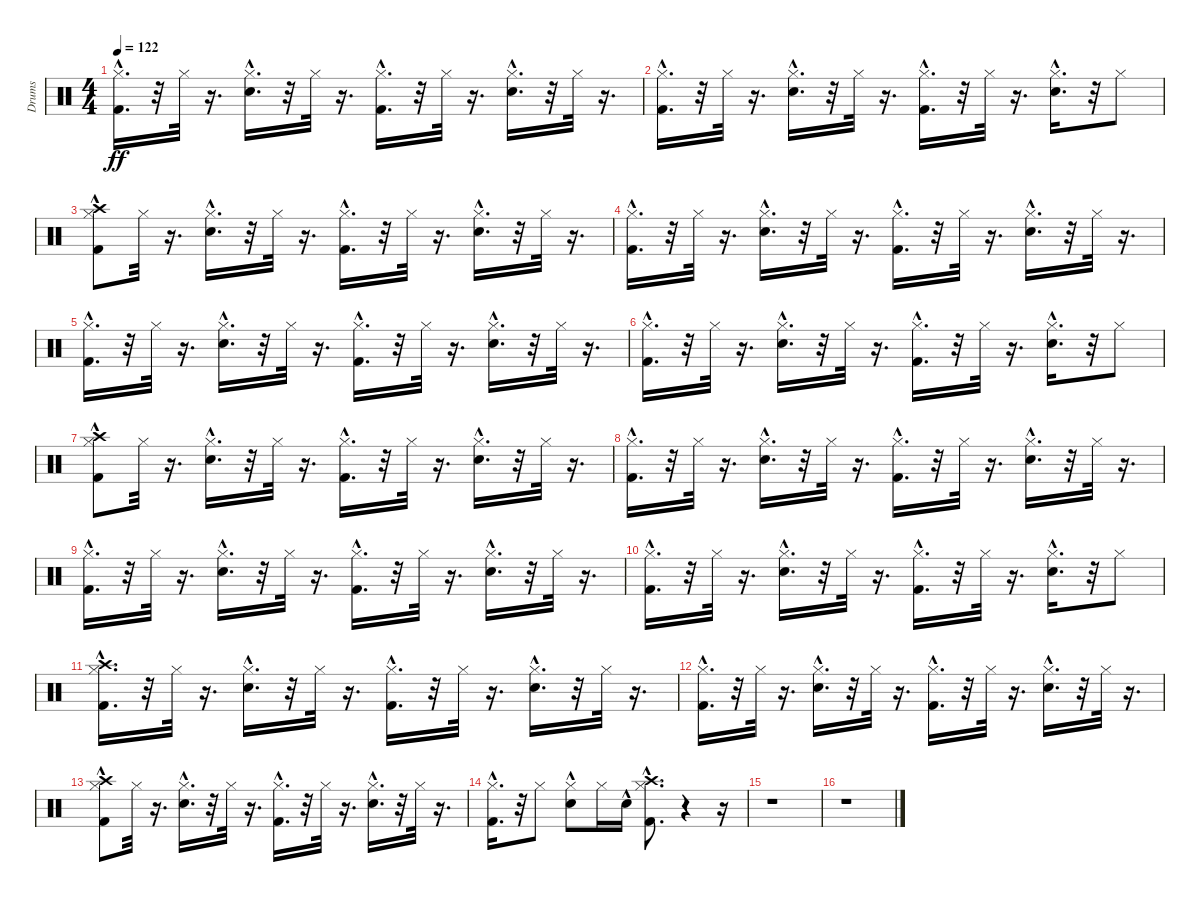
\track ("Drums" "Drums") {instrument percussion}
\staff {score}
\articulation defaults
\ts (4 4)
\tempo 122
\clef neutral
\ks c
("Kick (hit) 2"{hac} "Hi-Hat (closed)"{hac}).16{d dy ff} r.32 "Hi-Hat (closed)".32 r.16{d} ("Snare (hit) 2"{hac} "Hi-Hat (closed)"{hac}).16{d} r.32 "Hi-Hat (closed)".32 r.16{d} ("Kick (hit) 2"{hac} "Hi-Hat (closed)"{hac}).16{d} r.32 "Hi-Hat (closed)".32 r.16{d} ("Snare (hit) 2"{hac} "Hi-Hat (closed)"{hac}).16{d} r.32 "Hi-Hat (closed)".32 r.16{d} |
("Kick (hit) 2"{hac} "Hi-Hat (closed)"{hac}).16{d} r.32 "Hi-Hat (closed)".32 r.16{d} ("Snare (hit) 2"{hac} "Hi-Hat (closed)"{hac}).16{d} r.32 "Hi-Hat (closed)".32 r.16{d} ("Kick (hit) 2"{hac} "Hi-Hat (closed)"{hac}).16{d} r.32 "Hi-Hat (closed)".32 r.16{d} ("Snare (hit) 2"{hac} "Hi-Hat (closed)"{hac}).16{d} r.32 "Hi-Hat (closed)".8 |
("Kick (hit) 2"{hac} "Hi-Hat (closed)"{hac} "Crash high (hit)").8 "Hi-Hat (closed)".32 r.16{d} ("Snare (hit) 2"{hac} "Hi-Hat (closed)"{hac}).16{d} r.32 "Hi-Hat (closed)".32 r.16{d} ("Kick (hit) 2"{hac} "Hi-Hat (closed)"{hac}).16{d} r.32 "Hi-Hat (closed)".32 r.16{d} ("Snare (hit) 2"{hac} "Hi-Hat (closed)"{hac}).16{d} r.32 "Hi-Hat (closed)".32 r.16{d} |
("Kick (hit) 2"{hac} "Hi-Hat (closed)"{hac}).16{d} r.32 "Hi-Hat (closed)".32 r.16{d} ("Snare (hit) 2"{hac} "Hi-Hat (closed)"{hac}).16{d} r.32 "Hi-Hat (closed)".32 r.16{d} ("Kick (hit) 2"{hac} "Hi-Hat (closed)"{hac}).16{d} r.32 "Hi-Hat (closed)".32 r.16{d} ("Snare (hit) 2"{hac} "Hi-Hat (closed)"{hac}).16{d} r.32 "Hi-Hat (closed)".32 r.16{d} |
("Kick (hit) 2"{hac} "Hi-Hat (closed)"{hac}).16{d} r.32 "Hi-Hat (closed)".32 r.16{d} ("Snare (hit) 2"{hac} "Hi-Hat (closed)"{hac}).16{d} r.32 "Hi-Hat (closed)".32 r.16{d} ("Kick (hit) 2"{hac} "Hi-Hat (closed)"{hac}).16{d} r.32 "Hi-Hat (closed)".32 r.16{d} ("Snare (hit) 2"{hac} "Hi-Hat (closed)"{hac}).16{d} r.32 "Hi-Hat (closed)".32 r.16{d} |
("Kick (hit) 2"{hac} "Hi-Hat (closed)"{hac}).16{d} r.32 "Hi-Hat (closed)".32 r.16{d} ("Snare (hit) 2"{hac} "Hi-Hat (closed)"{hac}).16{d} r.32 "Hi-Hat (closed)".32 r.16{d} ("Kick (hit) 2"{hac} "Hi-Hat (closed)"{hac}).16{d} r.32 "Hi-Hat (closed)".32 r.16{d} ("Snare (hit) 2"{hac} "Hi-Hat (closed)"{hac}).16{d} r.32 "Hi-Hat (closed)".8 |
("Kick (hit) 2"{hac} "Hi-Hat (closed)"{hac} "Crash high (hit)").8 "Hi-Hat (closed)".32 r.16{d} ("Snare (hit) 2"{hac} "Hi-Hat (closed)"{hac}).16{d} r.32 "Hi-Hat (closed)".32 r.16{d} ("Kick (hit) 2"{hac} "Hi-Hat (closed)"{hac}).16{d} r.32 "Hi-Hat (closed)".32 r.16{d} ("Snare (hit) 2"{hac} "Hi-Hat (closed)"{hac}).16{d} r.32 "Hi-Hat (closed)".32 r.16{d} |
("Kick (hit) 2"{hac} "Hi-Hat (closed)"{hac}).16{d} r.32 "Hi-Hat (closed)".32 r.16{d} ("Snare (hit) 2"{hac} "Hi-Hat (closed)"{hac}).16{d} r.32 "Hi-Hat (closed)".32 r.16{d} ("Kick (hit) 2"{hac} "Hi-Hat (closed)"{hac}).16{d} r.32 "Hi-Hat (closed)".32 r.16{d} ("Snare (hit) 2"{hac} "Hi-Hat (closed)"{hac}).16{d} r.32 "Hi-Hat (closed)".32 r.16{d} |
("Kick (hit) 2"{hac} "Hi-Hat (closed)"{hac}).16{d} r.32 "Hi-Hat (closed)".32 r.16{d} ("Snare (hit) 2"{hac} "Hi-Hat (closed)"{hac}).16{d} r.32 "Hi-Hat (closed)".32 r.16{d} ("Kick (hit) 2"{hac} "Hi-Hat (closed)"{hac}).16{d} r.32 "Hi-Hat (closed)".32 r.16{d} ("Snare (hit) 2"{hac} "Hi-Hat (closed)"{hac}).16{d} r.32 "Hi-Hat (closed)".32 r.16{d} |
("Kick (hit) 2"{hac} "Hi-Hat (closed)"{hac}).16{d} r.32 "Hi-Hat (closed)".32 r.16{d} ("Snare (hit) 2"{hac} "Hi-Hat (closed)"{hac}).16{d} r.32 "Hi-Hat (closed)".32 r.16{d} ("Kick (hit) 2"{hac} "Hi-Hat (closed)"{hac}).16{d} r.32 "Hi-Hat (closed)".32 r.16{d} ("Snare (hit) 2"{hac} "Hi-Hat (closed)"{hac}).16{d} r.32 "Hi-Hat (closed)".8 |
("Kick (hit) 2"{hac} "Hi-Hat (closed)"{hac} "Crash high (hit)"{hac}).16{d} r.32 "Hi-Hat (closed)".32 r.16{d} ("Snare (hit) 2"{hac} "Hi-Hat (closed)"{hac}).16{d} r.32 "Hi-Hat (closed)".32 r.16{d} ("Kick (hit) 2"{hac} "Hi-Hat (closed)"{hac}).16{d} r.32 "Hi-Hat (closed)".32 r.16{d} ("Snare (hit) 2"{hac} "Hi-Hat (closed)"{hac}).16{d} r.32 "Hi-Hat (closed)".32 r.16{d} |
("Kick (hit) 2"{hac} "Hi-Hat (closed)"{hac}).16{d} r.32 "Hi-Hat (closed)".32 r.16{d} ("Snare (hit) 2"{hac} "Hi-Hat (closed)"{hac}).16{d} r.32 "Hi-Hat (closed)".32 r.16{d} ("Kick (hit) 2"{hac} "Hi-Hat (closed)"{hac}).16{d} r.32 "Hi-Hat (closed)".32 r.16{d} ("Snare (hit) 2"{hac} "Hi-Hat (closed)"{hac}).16{d} r.32 "Hi-Hat (closed)".32 r.16{d} |
("Kick (hit) 2"{hac} "Hi-Hat (closed)"{hac} "Crash high (hit)"{hac}).8 "Hi-Hat (closed)".32 r.16{d} ("Snare (hit) 2"{hac} "Hi-Hat (closed)"{hac}).16{d} r.32 "Hi-Hat (closed)".32 r.16{d} ("Kick (hit) 2"{hac} "Hi-Hat (closed)"{hac}).16{d} r.32 "Hi-Hat (closed)".32 r.16{d} ("Snare (hit) 2"{hac} "Hi-Hat (closed)"{hac}).16{d} r.32 "Hi-Hat (closed)".32 r.16{d} |
("Kick (hit) 2"{hac} "Hi-Hat (closed)"{hac}).16{d} r.32 "Hi-Hat (closed)".8 ("Snare (hit) 2"{hac} "Hi-Hat (closed)").8 "Hi-Hat (closed)".16 "Snare (hit) 2"{hac}.16 ("Kick (hit) 2"{hac} "Hi-Hat (closed)" "Crash high (hit)"{hac}).8{d} r.4 r.16 |
r.1 |
r.1
